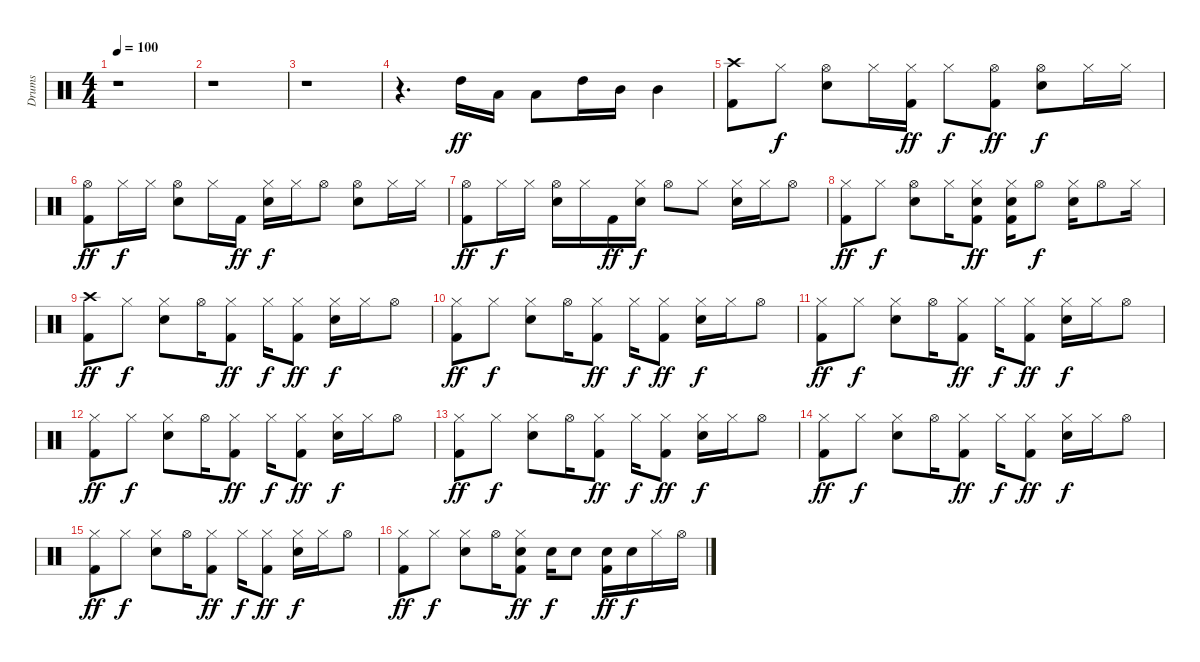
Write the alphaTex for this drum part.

\track ("Drums" "Drums") {instrument percussion}
\staff {score}
\articulation defaults
\ts (4 4)
\tempo 100
\clef neutral
\ks c
r.1{dy ff} |
r.1 |
r.1 |
r.4{d} "High Tom (hit)".16 "Low Tom (hit)".16 "Low Tom (hit)".8 "High Tom (hit)".16 "Mid Tom (hit)".16 "Mid Tom (hit)".4 |
("Crash high (hit)" "Kick (hit) 2").8 "Hi-Hat (closed)".8{dy f} ("Hi-Hat (open)" "Snare (hit) 2").8 "Hi-Hat (closed)".16 ("Hi-Hat (closed)" "Kick (hit) 2").16{dy ff} "Hi-Hat (closed)".8{dy f} ("Hi-Hat (open)" "Kick (hit) 2").8{dy ff} ("Hi-Hat (open)" "Snare (hit) 2").8{dy f} "Hi-Hat (closed)".16 "Hi-Hat (closed)".16 |
("Hi-Hat (open)" "Kick (hit) 2").8{dy ff} "Hi-Hat (closed)".16{dy f} "Hi-Hat (closed)".16 ("Hi-Hat (open)" "Snare (hit) 2").8 "Hi-Hat (closed)".16 "Kick (hit) 2".16{dy ff} ("Hi-Hat (closed)" "Snare (hit) 2").16{dy f} "Hi-Hat (closed)".16 "Hi-Hat (open)".8 ("Hi-Hat (open)" "Snare (hit) 2").8 "Hi-Hat (closed)".16 "Hi-Hat (closed)".16 |
("Hi-Hat (open)" "Kick (hit) 2").8{dy ff} "Hi-Hat (closed)".16{dy f} "Hi-Hat (closed)".16 ("Hi-Hat (open)" "Snare (hit) 2").16 "Hi-Hat (closed)".16 "Kick (hit) 2".16{dy ff} ("Hi-Hat (closed)" "Snare (hit) 2").16{dy f} "Hi-Hat (open)".8 "Hi-Hat (closed)".8 ("Hi-Hat (closed)" "Snare (hit) 2").16 "Hi-Hat (closed)".16 "Hi-Hat (open)".8 |
("Hi-Hat (closed)" "Kick (hit) 2").8{dy ff} "Hi-Hat (closed)".8{dy f} ("Hi-Hat (open)" "Snare (hit) 2").8 "Hi-Hat (closed)".16 ("Hi-Hat (closed)" "Snare (hit) 2" "Kick (hit) 2").8{dy ff} ("Hi-Hat (closed)" "Snare (hit) 2" "Kick (hit) 2").16 "Hi-Hat (open)".8{dy f} ("Hi-Hat (closed)" "Snare (hit) 2").16 "Hi-Hat (open)".8 "Hi-Hat (closed)".16 |
("Crash high (hit)" "Kick (hit) 2").8{dy ff} "Hi-Hat (closed)".8{dy f} ("Hi-Hat (closed)" "Snare (hit) 2").8 "Hi-Hat (open)".16 ("Hi-Hat (closed)" "Kick (hit) 2").8{dy ff} "Hi-Hat (closed)".16{dy f} ("Hi-Hat (closed)" "Kick (hit) 2").8{dy ff} ("Hi-Hat (closed)" "Snare (hit) 2").16{dy f} "Hi-Hat (closed)".16 "Hi-Hat (open)".8 |
("Hi-Hat (closed)" "Kick (hit) 2").8{dy ff} "Hi-Hat (closed)".8{dy f} ("Hi-Hat (closed)" "Snare (hit) 2").8 "Hi-Hat (open)".16 ("Hi-Hat (closed)" "Kick (hit) 2").8{dy ff} "Hi-Hat (closed)".16{dy f} ("Hi-Hat (closed)" "Kick (hit) 2").8{dy ff} ("Hi-Hat (closed)" "Snare (hit) 2").16{dy f} "Hi-Hat (closed)".16 "Hi-Hat (open)".8 |
("Hi-Hat (closed)" "Kick (hit) 2").8{dy ff} "Hi-Hat (closed)".8{dy f} ("Hi-Hat (closed)" "Snare (hit) 2").8 "Hi-Hat (open)".16 ("Hi-Hat (closed)" "Kick (hit) 2").8{dy ff} "Hi-Hat (closed)".16{dy f} ("Hi-Hat (closed)" "Kick (hit) 2").8{dy ff} ("Hi-Hat (closed)" "Snare (hit) 2").16{dy f} "Hi-Hat (closed)".16 "Hi-Hat (open)".8 |
("Hi-Hat (closed)" "Kick (hit) 2").8{dy ff} "Hi-Hat (closed)".8{dy f} ("Hi-Hat (closed)" "Snare (hit) 2").8 "Hi-Hat (open)".16 ("Hi-Hat (closed)" "Kick (hit) 2").8{dy ff} "Hi-Hat (closed)".16{dy f} ("Hi-Hat (closed)" "Kick (hit) 2").8{dy ff} ("Hi-Hat (closed)" "Snare (hit) 2").16{dy f} "Hi-Hat (closed)".16 "Hi-Hat (open)".8 |
("Hi-Hat (closed)" "Kick (hit) 2").8{dy ff} "Hi-Hat (closed)".8{dy f} ("Hi-Hat (closed)" "Snare (hit) 2").8 "Hi-Hat (open)".16 ("Hi-Hat (closed)" "Kick (hit) 2").8{dy ff} "Hi-Hat (closed)".16{dy f} ("Hi-Hat (closed)" "Kick (hit) 2").8{dy ff} ("Hi-Hat (closed)" "Snare (hit) 2").16{dy f} "Hi-Hat (closed)".16 "Hi-Hat (open)".8 |
("Hi-Hat (closed)" "Kick (hit) 2").8{dy ff} "Hi-Hat (closed)".8{dy f} ("Hi-Hat (closed)" "Snare (hit) 2").8 "Hi-Hat (open)".16 ("Hi-Hat (closed)" "Kick (hit) 2").8{dy ff} "Hi-Hat (closed)".16{dy f} ("Hi-Hat (closed)" "Kick (hit) 2").8{dy ff} ("Hi-Hat (closed)" "Snare (hit) 2").16{dy f} "Hi-Hat (closed)".16 "Hi-Hat (open)".8 |
("Hi-Hat (closed)" "Kick (hit) 2").8{dy ff} "Hi-Hat (closed)".8{dy f} ("Hi-Hat (closed)" "Snare (hit) 2").8 "Hi-Hat (open)".16 ("Hi-Hat (closed)" "Kick (hit) 2").8{dy ff} "Hi-Hat (closed)".16{dy f} ("Hi-Hat (closed)" "Kick (hit) 2").8{dy ff} ("Hi-Hat (closed)" "Snare (hit) 2").16{dy f} "Hi-Hat (closed)".16 "Hi-Hat (open)".8 |
("Hi-Hat (closed)" "Kick (hit) 2").8{dy ff} "Hi-Hat (closed)".8{dy f} ("Hi-Hat (closed)" "Snare (hit) 2").8 "Hi-Hat (open)".16 ("Hi-Hat (closed)" "Snare (hit) 2" "Kick (hit) 2").8{dy ff} "Snare (hit) 2".16{dy f} "Snare (hit) 2".8 ("Snare (hit) 2" "Kick (hit) 2").16{dy ff} "Snare (hit) 2".16{dy f} "Hi-Hat (closed)".16 "Hi-Hat (open)".16
